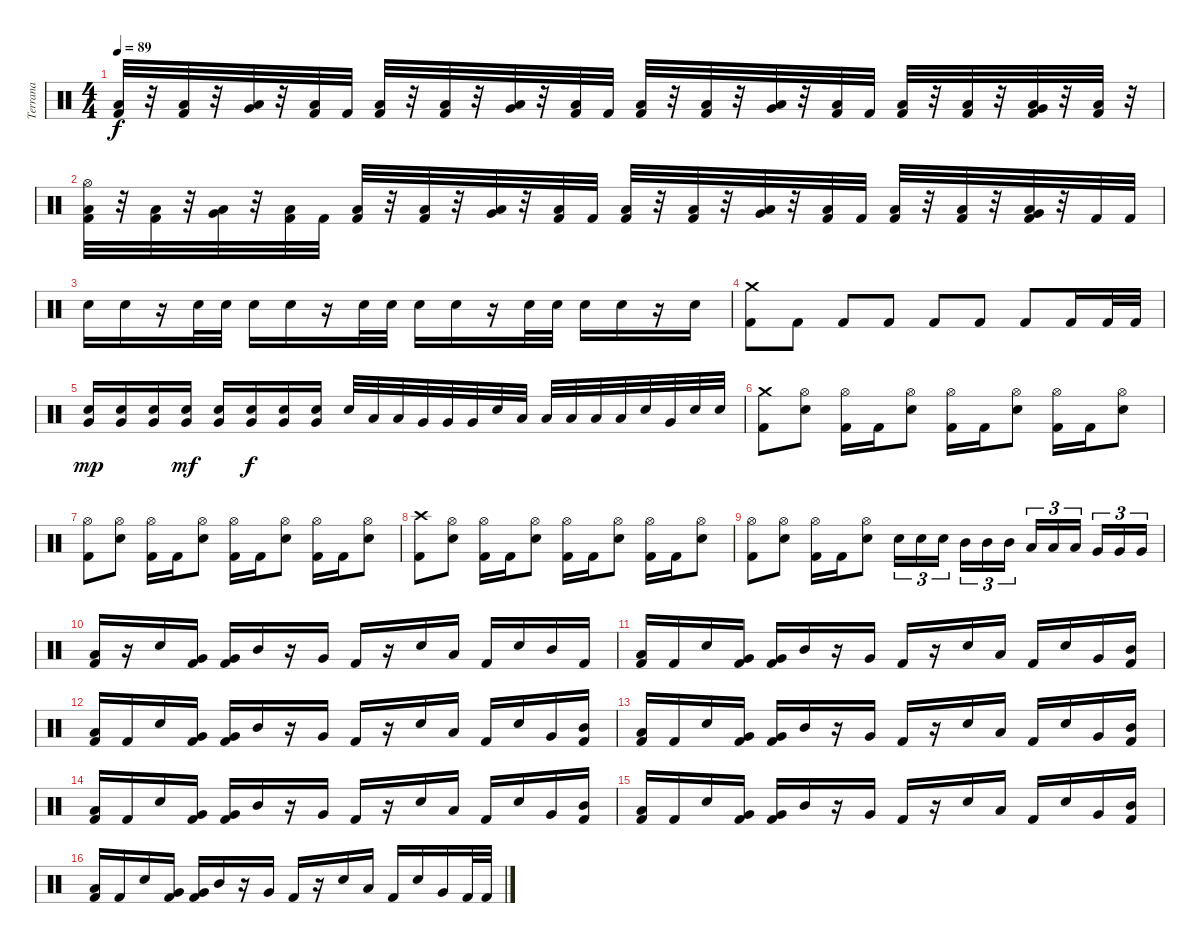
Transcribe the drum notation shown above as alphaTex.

\track ("Terrana" "Terrana") {instrument percussion}
\staff {score}
\articulation defaults
\ts (4 4)
\tempo 89
\clef neutral
\ks c
("Low Floor Tom (hit)" "Kick (hit) 2").32{dy f} r.32 ("Low Floor Tom (hit)" "Kick (hit) 2").32 r.32 ("Very Low Tom (hit)" "Low Floor Tom (hit)").32 r.32 ("Low Floor Tom (hit)" "Kick (hit) 2").32 "Kick (hit) 2".32 ("Low Floor Tom (hit)" "Kick (hit) 2").32 r.32 ("Low Floor Tom (hit)" "Kick (hit) 2").32 r.32 ("Very Low Tom (hit)" "Low Floor Tom (hit)").32 r.32 ("Low Floor Tom (hit)" "Kick (hit) 2").32 "Kick (hit) 2".32 ("Low Floor Tom (hit)" "Kick (hit) 2").32 r.32 ("Low Floor Tom (hit)" "Kick (hit) 2").32 r.32 ("Very Low Tom (hit)" "Low Floor Tom (hit)").32 r.32 ("Low Floor Tom (hit)" "Kick (hit) 2").32 "Kick (hit) 2".32 ("Low Floor Tom (hit)" "Kick (hit) 2").32 r.32 ("Low Floor Tom (hit)" "Kick (hit) 2").32 r.32 ("Very Low Tom (hit)" "Low Floor Tom (hit)" "Kick (hit) 2").32 r.32 ("Low Floor Tom (hit)" "Kick (hit) 2").32 r.32 |
("Hi-Hat (open)" "Low Floor Tom (hit)" "Kick (hit) 2").32 r.32 ("Low Floor Tom (hit)" "Kick (hit) 2").32 r.32 ("Very Low Tom (hit)" "Low Floor Tom (hit)").32 r.32 ("Low Floor Tom (hit)" "Kick (hit) 2").32 "Kick (hit) 2".32 ("Low Floor Tom (hit)" "Kick (hit) 2").32 r.32 ("Low Floor Tom (hit)" "Kick (hit) 2").32 r.32 ("Very Low Tom (hit)" "Low Floor Tom (hit)").32 r.32 ("Low Floor Tom (hit)" "Kick (hit) 2").32 "Kick (hit) 2".32 ("Low Floor Tom (hit)" "Kick (hit) 2").32 r.32 ("Low Floor Tom (hit)" "Kick (hit) 2").32 r.32 ("Very Low Tom (hit)" "Low Floor Tom (hit)").32 r.32 ("Low Floor Tom (hit)" "Kick (hit) 2").32 "Kick (hit) 2".32 ("Low Floor Tom (hit)" "Kick (hit) 2").32 r.32 ("Low Floor Tom (hit)" "Kick (hit) 2").32 r.32 ("Very Low Tom (hit)" "Low Floor Tom (hit)" "Kick (hit) 2").32 r.32 "Kick (hit) 2".32 "Kick (hit) 2".32 |
"Electric Snare (hit)".16 "Electric Snare (hit)".16 r.16 "Electric Snare (hit)".32 "Electric Snare (hit)".32 "Electric Snare (hit)".16 "Electric Snare (hit)".16 r.16 "Electric Snare (hit)".32 "Electric Snare (hit)".32 "Electric Snare (hit)".16 "Electric Snare (hit)".16 r.16 "Electric Snare (hit)".32 "Electric Snare (hit)".32 "Electric Snare (hit)".16 "Electric Snare (hit)".16 r.16 "Electric Snare (hit)".16 |
("Crash medium (hit)" "Kick (hit) 2").8 "Kick (hit) 2".8 "Kick (hit) 2".8 "Kick (hit) 2".8 "Kick (hit) 2".8 "Kick (hit) 2".8 "Kick (hit) 2".8 "Kick (hit) 2".16 "Kick (hit) 2".32 "Kick (hit) 2".32 |
("Electric Snare (hit)" "Very Low Tom (hit)").16{dy mp} ("Electric Snare (hit)" "Very Low Tom (hit)").16 ("Electric Snare (hit)" "Very Low Tom (hit)").16 ("Electric Snare (hit)" "Very Low Tom (hit)").16{dy mf} ("Electric Snare (hit)" "Very Low Tom (hit)").16 ("Electric Snare (hit)" "Very Low Tom (hit)").16{dy f} ("Electric Snare (hit)" "Very Low Tom (hit)").16 ("Electric Snare (hit)" "Very Low Tom (hit)").16 "Electric Snare (hit)".32 "Low Tom (hit)".32 "Low Tom (hit)".32 "Very Low Tom (hit)".32 "Very Low Tom (hit)".32 "Very Low Tom (hit)".32 "Electric Snare (hit)".32 "Low Floor Tom (hit)".32 "Low Floor Tom (hit)".32 "Low Floor Tom (hit)".32 "Low Tom (hit)".32 "Low Tom (hit)".32 "Electric Snare (hit)".32 "Very Low Tom (hit)".32 "Electric Snare (hit)".32 "Electric Snare (hit)".32 |
("Crash medium (hit)" "Kick (hit) 2").8 ("Hi-Hat (open)" "Electric Snare (hit)").8 ("Hi-Hat (open)" "Kick (hit) 2").16 "Kick (hit) 2".16 ("Hi-Hat (open)" "Electric Snare (hit)").8 ("Hi-Hat (open)" "Kick (hit) 2").16 "Kick (hit) 2".16 ("Hi-Hat (open)" "Electric Snare (hit)").8 ("Hi-Hat (open)" "Kick (hit) 2").16 "Kick (hit) 2".16 ("Hi-Hat (open)" "Electric Snare (hit)").8 |
("Hi-Hat (open)" "Kick (hit) 2").8 ("Hi-Hat (open)" "Electric Snare (hit)").8 ("Hi-Hat (open)" "Kick (hit) 2").16 "Kick (hit) 2".16 ("Hi-Hat (open)" "Electric Snare (hit)").8 ("Hi-Hat (open)" "Kick (hit) 2").16 "Kick (hit) 2".16 ("Hi-Hat (open)" "Electric Snare (hit)").8 ("Hi-Hat (open)" "Kick (hit) 2").16 "Kick (hit) 2".16 ("Hi-Hat (open)" "Electric Snare (hit)").8 |
("Crash high (hit)" "Kick (hit) 2").8 ("Hi-Hat (open)" "Electric Snare (hit)").8 ("Hi-Hat (open)" "Kick (hit) 2").16 "Kick (hit) 2".16 ("Hi-Hat (open)" "Electric Snare (hit)").8 ("Hi-Hat (open)" "Kick (hit) 2").16 "Kick (hit) 2".16 ("Hi-Hat (open)" "Electric Snare (hit)").8 ("Hi-Hat (open)" "Kick (hit) 2").16 "Kick (hit) 2".16 ("Hi-Hat (open)" "Electric Snare (hit)").8 |
("Hi-Hat (open)" "Kick (hit) 2").8 ("Hi-Hat (open)" "Electric Snare (hit)").8 ("Hi-Hat (open)" "Kick (hit) 2").16 "Kick (hit) 2".16 ("Hi-Hat (open)" "Electric Snare (hit)").8 "Electric Snare (hit)".16{tu (3 2)} "Electric Snare (hit)".16{tu (3 2)} "Electric Snare (hit)".16{tu (3 2) beam splitsecondary} "Mid Tom (hit)".16{tu (3 2)} "Mid Tom (hit)".16{tu (3 2)} "Mid Tom (hit)".16{tu (3 2)} "Low Tom (hit)".16{tu (3 2)} "Low Tom (hit)".16{tu (3 2)} "Low Tom (hit)".16{tu (3 2) beam splitsecondary} "Very Low Tom (hit)".16{tu (3 2)} "Very Low Tom (hit)".16{tu (3 2)} "Very Low Tom (hit)".16{tu (3 2)} |
("Low Floor Tom (hit)" "Kick (hit) 2").16 r.16 "Electric Snare (hit)".16 ("Very Low Tom (hit)" "Kick (hit) 2").16 ("Very Low Tom (hit)" "Kick (hit) 2").16 "Mid Tom (hit)".16 r.16 "Very Low Tom (hit)".16 "Kick (hit) 2".16 r.16 "Electric Snare (hit)".16 "Low Floor Tom (hit)".16 "Kick (hit) 2".16 "Electric Snare (hit)".16 "Mid Tom (hit)".16 "Kick (hit) 2".16 |
("Low Floor Tom (hit)" "Kick (hit) 2").16 "Kick (hit) 2".16 "Electric Snare (hit)".16 ("Very Low Tom (hit)" "Kick (hit) 2").16 ("Very Low Tom (hit)" "Kick (hit) 2").16 "Mid Tom (hit)".16 r.16 "Very Low Tom (hit)".16 "Kick (hit) 2".16 r.16 "Electric Snare (hit)".16 "Low Floor Tom (hit)".16 "Kick (hit) 2".16 "Electric Snare (hit)".16 "Very Low Tom (hit)".16 ("Mid Tom (hit)" "Kick (hit) 2").16 |
("Low Floor Tom (hit)" "Kick (hit) 2").16 "Kick (hit) 2".16 "Electric Snare (hit)".16 ("Very Low Tom (hit)" "Kick (hit) 2").16 ("Very Low Tom (hit)" "Kick (hit) 2").16 "Mid Tom (hit)".16 r.16 "Very Low Tom (hit)".16 "Kick (hit) 2".16 r.16 "Electric Snare (hit)".16 "Low Floor Tom (hit)".16 "Kick (hit) 2".16 "Electric Snare (hit)".16 "Very Low Tom (hit)".16 ("Mid Tom (hit)" "Kick (hit) 2").16 |
("Low Floor Tom (hit)" "Kick (hit) 2").16 "Kick (hit) 2".16 "Electric Snare (hit)".16 ("Very Low Tom (hit)" "Kick (hit) 2").16 ("Very Low Tom (hit)" "Kick (hit) 2").16 "Mid Tom (hit)".16 r.16 "Very Low Tom (hit)".16 "Kick (hit) 2".16 r.16 "Electric Snare (hit)".16 "Low Floor Tom (hit)".16 "Kick (hit) 2".16 "Electric Snare (hit)".16 "Very Low Tom (hit)".16 ("Mid Tom (hit)" "Kick (hit) 2").16 |
("Low Floor Tom (hit)" "Kick (hit) 2").16 "Kick (hit) 2".16 "Electric Snare (hit)".16 ("Very Low Tom (hit)" "Kick (hit) 2").16 ("Very Low Tom (hit)" "Kick (hit) 2").16 "Mid Tom (hit)".16 r.16 "Very Low Tom (hit)".16 "Kick (hit) 2".16 r.16 "Electric Snare (hit)".16 "Low Floor Tom (hit)".16 "Kick (hit) 2".16 "Electric Snare (hit)".16 "Very Low Tom (hit)".16 ("Mid Tom (hit)" "Kick (hit) 2").16 |
("Low Floor Tom (hit)" "Kick (hit) 2").16 "Kick (hit) 2".16 "Electric Snare (hit)".16 ("Very Low Tom (hit)" "Kick (hit) 2").16 ("Very Low Tom (hit)" "Kick (hit) 2").16 "Mid Tom (hit)".16 r.16 "Very Low Tom (hit)".16 "Kick (hit) 2".16 r.16 "Electric Snare (hit)".16 "Low Floor Tom (hit)".16 "Kick (hit) 2".16 "Electric Snare (hit)".16 "Very Low Tom (hit)".16 ("Mid Tom (hit)" "Kick (hit) 2").16 |
("Low Floor Tom (hit)" "Kick (hit) 2").16 "Kick (hit) 2".16 "Electric Snare (hit)".16 ("Very Low Tom (hit)" "Kick (hit) 2").16 ("Very Low Tom (hit)" "Kick (hit) 2").16 "Mid Tom (hit)".16 r.16 "Very Low Tom (hit)".16 "Kick (hit) 2".16 r.16 "Electric Snare (hit)".16 "Low Floor Tom (hit)".16 "Kick (hit) 2".16 "Electric Snare (hit)".16 "Very Low Tom (hit)".16 "Kick (hit) 2".32 "Kick (hit) 2".32
